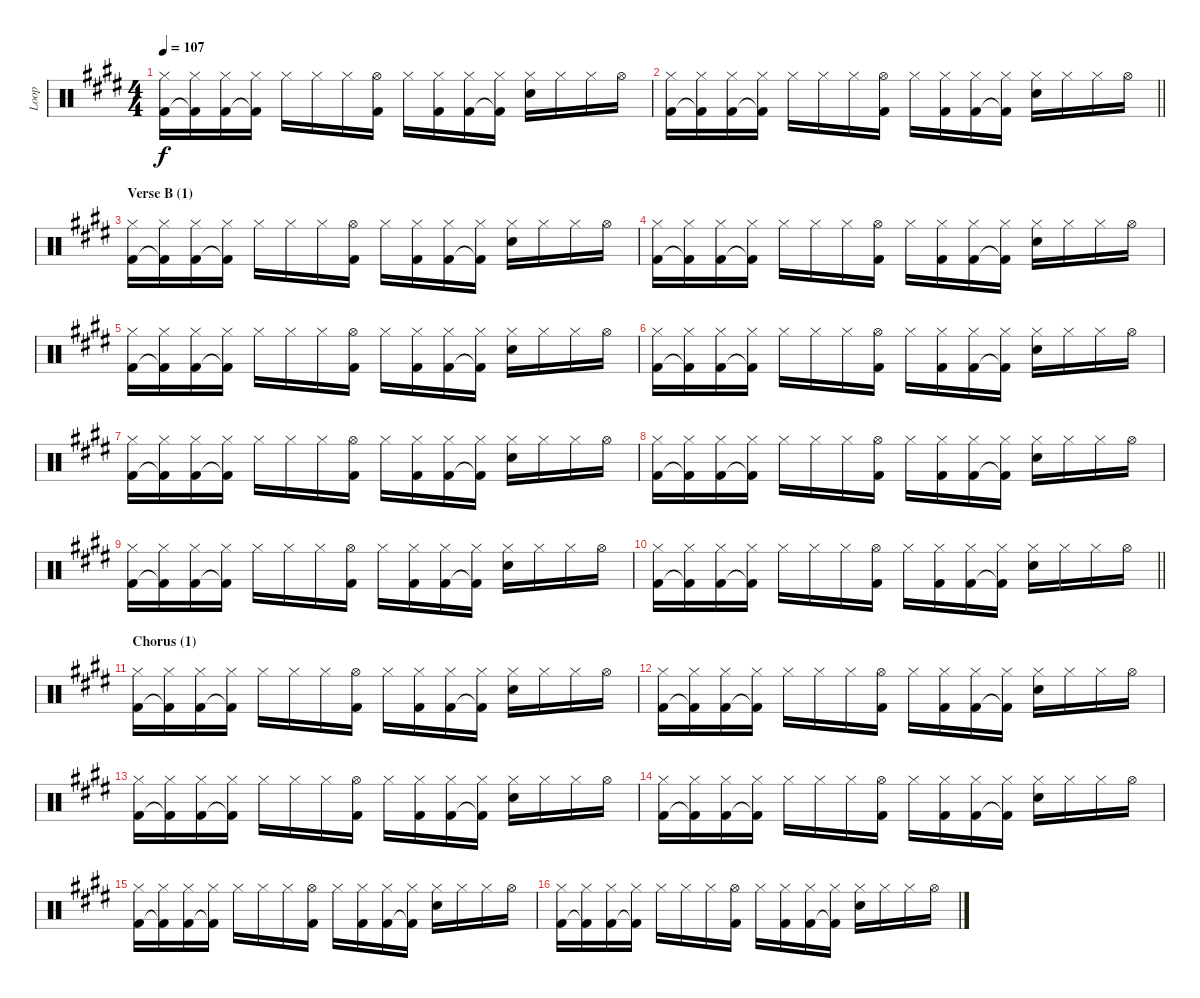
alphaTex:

\track ("Loop" "Loop") {instrument percussion}
\staff {score}
\articulation defaults
\ts (4 4)
\tempo 107
\clef neutral
\ks e
("Hi-Hat (closed)" "Kick (hit) 2").16{dy f} ("Hi-Hat (closed)" "Kick (hit) 2"{t}).16 ("Hi-Hat (closed)" "Kick (hit) 2").16 ("Hi-Hat (closed)" "Kick (hit) 2"{t}).16 "Hi-Hat (closed)".16 "Hi-Hat (closed)".16 "Hi-Hat (closed)".16 ("Hi-Hat (open)" "Kick (hit) 2").16 "Hi-Hat (closed)".16 ("Hi-Hat (closed)" "Kick (hit) 2").16 ("Hi-Hat (closed)" "Kick (hit) 2").16 ("Hi-Hat (closed)" "Kick (hit) 2"{t}).16 ("Hi-Hat (closed)" "Electric Snare (hit)").16 "Hi-Hat (closed)".16 "Hi-Hat (closed)".16 "Hi-Hat (open)".16 |
\barLineRight lightlight
("Hi-Hat (closed)" "Kick (hit) 2").16 ("Hi-Hat (closed)" "Kick (hit) 2"{t}).16 ("Hi-Hat (closed)" "Kick (hit) 2").16 ("Hi-Hat (closed)" "Kick (hit) 2"{t}).16 "Hi-Hat (closed)".16 "Hi-Hat (closed)".16 "Hi-Hat (closed)".16 ("Hi-Hat (open)" "Kick (hit) 2").16 "Hi-Hat (closed)".16 ("Hi-Hat (closed)" "Kick (hit) 2").16 ("Hi-Hat (closed)" "Kick (hit) 2").16 ("Hi-Hat (closed)" "Kick (hit) 2"{t}).16 ("Hi-Hat (closed)" "Electric Snare (hit)").16 "Hi-Hat (closed)".16 "Hi-Hat (closed)".16 "Hi-Hat (open)".16 |
\section ("" "Verse B (1)")
("Hi-Hat (closed)" "Kick (hit) 2").16 ("Hi-Hat (closed)" "Kick (hit) 2"{t}).16 ("Hi-Hat (closed)" "Kick (hit) 2").16 ("Hi-Hat (closed)" "Kick (hit) 2"{t}).16 "Hi-Hat (closed)".16 "Hi-Hat (closed)".16 "Hi-Hat (closed)".16 ("Hi-Hat (open)" "Kick (hit) 2").16 "Hi-Hat (closed)".16 ("Hi-Hat (closed)" "Kick (hit) 2").16 ("Hi-Hat (closed)" "Kick (hit) 2").16 ("Hi-Hat (closed)" "Kick (hit) 2"{t}).16 ("Hi-Hat (closed)" "Electric Snare (hit)").16 "Hi-Hat (closed)".16 "Hi-Hat (closed)".16 "Hi-Hat (open)".16 |
("Hi-Hat (closed)" "Kick (hit) 2").16 ("Hi-Hat (closed)" "Kick (hit) 2"{t}).16 ("Hi-Hat (closed)" "Kick (hit) 2").16 ("Hi-Hat (closed)" "Kick (hit) 2"{t}).16 "Hi-Hat (closed)".16 "Hi-Hat (closed)".16 "Hi-Hat (closed)".16 ("Hi-Hat (open)" "Kick (hit) 2").16 "Hi-Hat (closed)".16 ("Hi-Hat (closed)" "Kick (hit) 2").16 ("Hi-Hat (closed)" "Kick (hit) 2").16 ("Hi-Hat (closed)" "Kick (hit) 2"{t}).16 ("Hi-Hat (closed)" "Electric Snare (hit)").16 "Hi-Hat (closed)".16 "Hi-Hat (closed)".16 "Hi-Hat (open)".16 |
("Hi-Hat (closed)" "Kick (hit) 2").16 ("Hi-Hat (closed)" "Kick (hit) 2"{t}).16 ("Hi-Hat (closed)" "Kick (hit) 2").16 ("Hi-Hat (closed)" "Kick (hit) 2"{t}).16 "Hi-Hat (closed)".16 "Hi-Hat (closed)".16 "Hi-Hat (closed)".16 ("Hi-Hat (open)" "Kick (hit) 2").16 "Hi-Hat (closed)".16 ("Hi-Hat (closed)" "Kick (hit) 2").16 ("Hi-Hat (closed)" "Kick (hit) 2").16 ("Hi-Hat (closed)" "Kick (hit) 2"{t}).16 ("Hi-Hat (closed)" "Electric Snare (hit)").16 "Hi-Hat (closed)".16 "Hi-Hat (closed)".16 "Hi-Hat (open)".16 |
("Hi-Hat (closed)" "Kick (hit) 2").16 ("Hi-Hat (closed)" "Kick (hit) 2"{t}).16 ("Hi-Hat (closed)" "Kick (hit) 2").16 ("Hi-Hat (closed)" "Kick (hit) 2"{t}).16 "Hi-Hat (closed)".16 "Hi-Hat (closed)".16 "Hi-Hat (closed)".16 ("Hi-Hat (open)" "Kick (hit) 2").16 "Hi-Hat (closed)".16 ("Hi-Hat (closed)" "Kick (hit) 2").16 ("Hi-Hat (closed)" "Kick (hit) 2").16 ("Hi-Hat (closed)" "Kick (hit) 2"{t}).16 ("Hi-Hat (closed)" "Electric Snare (hit)").16 "Hi-Hat (closed)".16 "Hi-Hat (closed)".16 "Hi-Hat (open)".16 |
("Hi-Hat (closed)" "Kick (hit) 2").16 ("Hi-Hat (closed)" "Kick (hit) 2"{t}).16 ("Hi-Hat (closed)" "Kick (hit) 2").16 ("Hi-Hat (closed)" "Kick (hit) 2"{t}).16 "Hi-Hat (closed)".16 "Hi-Hat (closed)".16 "Hi-Hat (closed)".16 ("Hi-Hat (open)" "Kick (hit) 2").16 "Hi-Hat (closed)".16 ("Hi-Hat (closed)" "Kick (hit) 2").16 ("Hi-Hat (closed)" "Kick (hit) 2").16 ("Hi-Hat (closed)" "Kick (hit) 2"{t}).16 ("Hi-Hat (closed)" "Electric Snare (hit)").16 "Hi-Hat (closed)".16 "Hi-Hat (closed)".16 "Hi-Hat (open)".16 |
("Hi-Hat (closed)" "Kick (hit) 2").16 ("Hi-Hat (closed)" "Kick (hit) 2"{t}).16 ("Hi-Hat (closed)" "Kick (hit) 2").16 ("Hi-Hat (closed)" "Kick (hit) 2"{t}).16 "Hi-Hat (closed)".16 "Hi-Hat (closed)".16 "Hi-Hat (closed)".16 ("Hi-Hat (open)" "Kick (hit) 2").16 "Hi-Hat (closed)".16 ("Hi-Hat (closed)" "Kick (hit) 2").16 ("Hi-Hat (closed)" "Kick (hit) 2").16 ("Hi-Hat (closed)" "Kick (hit) 2"{t}).16 ("Hi-Hat (closed)" "Electric Snare (hit)").16 "Hi-Hat (closed)".16 "Hi-Hat (closed)".16 "Hi-Hat (open)".16 |
("Hi-Hat (closed)" "Kick (hit) 2").16 ("Hi-Hat (closed)" "Kick (hit) 2"{t}).16 ("Hi-Hat (closed)" "Kick (hit) 2").16 ("Hi-Hat (closed)" "Kick (hit) 2"{t}).16 "Hi-Hat (closed)".16 "Hi-Hat (closed)".16 "Hi-Hat (closed)".16 ("Hi-Hat (open)" "Kick (hit) 2").16 "Hi-Hat (closed)".16 ("Hi-Hat (closed)" "Kick (hit) 2").16 ("Hi-Hat (closed)" "Kick (hit) 2").16 ("Hi-Hat (closed)" "Kick (hit) 2"{t}).16 ("Hi-Hat (closed)" "Electric Snare (hit)").16 "Hi-Hat (closed)".16 "Hi-Hat (closed)".16 "Hi-Hat (open)".16 |
\barLineRight lightlight
("Hi-Hat (closed)" "Kick (hit) 2").16 ("Hi-Hat (closed)" "Kick (hit) 2"{t}).16 ("Hi-Hat (closed)" "Kick (hit) 2").16 ("Hi-Hat (closed)" "Kick (hit) 2"{t}).16 "Hi-Hat (closed)".16 "Hi-Hat (closed)".16 "Hi-Hat (closed)".16 ("Hi-Hat (open)" "Kick (hit) 2").16 "Hi-Hat (closed)".16 ("Hi-Hat (closed)" "Kick (hit) 2").16 ("Hi-Hat (closed)" "Kick (hit) 2").16 ("Hi-Hat (closed)" "Kick (hit) 2"{t}).16 ("Hi-Hat (closed)" "Electric Snare (hit)").16 "Hi-Hat (closed)".16 "Hi-Hat (closed)".16 "Hi-Hat (open)".16 |
\section ("" "Chorus (1)")
("Hi-Hat (closed)" "Kick (hit) 2").16 ("Hi-Hat (closed)" "Kick (hit) 2"{t}).16 ("Hi-Hat (closed)" "Kick (hit) 2").16 ("Hi-Hat (closed)" "Kick (hit) 2"{t}).16 "Hi-Hat (closed)".16 "Hi-Hat (closed)".16 "Hi-Hat (closed)".16 ("Hi-Hat (open)" "Kick (hit) 2").16 "Hi-Hat (closed)".16 ("Hi-Hat (closed)" "Kick (hit) 2").16 ("Hi-Hat (closed)" "Kick (hit) 2").16 ("Hi-Hat (closed)" "Kick (hit) 2"{t}).16 ("Hi-Hat (closed)" "Electric Snare (hit)").16 "Hi-Hat (closed)".16 "Hi-Hat (closed)".16 "Hi-Hat (open)".16 |
("Hi-Hat (closed)" "Kick (hit) 2").16 ("Hi-Hat (closed)" "Kick (hit) 2"{t}).16 ("Hi-Hat (closed)" "Kick (hit) 2").16 ("Hi-Hat (closed)" "Kick (hit) 2"{t}).16 "Hi-Hat (closed)".16 "Hi-Hat (closed)".16 "Hi-Hat (closed)".16 ("Hi-Hat (open)" "Kick (hit) 2").16 "Hi-Hat (closed)".16 ("Hi-Hat (closed)" "Kick (hit) 2").16 ("Hi-Hat (closed)" "Kick (hit) 2").16 ("Hi-Hat (closed)" "Kick (hit) 2"{t}).16 ("Hi-Hat (closed)" "Electric Snare (hit)").16 "Hi-Hat (closed)".16 "Hi-Hat (closed)".16 "Hi-Hat (open)".16 |
("Hi-Hat (closed)" "Kick (hit) 2").16 ("Hi-Hat (closed)" "Kick (hit) 2"{t}).16 ("Hi-Hat (closed)" "Kick (hit) 2").16 ("Hi-Hat (closed)" "Kick (hit) 2"{t}).16 "Hi-Hat (closed)".16 "Hi-Hat (closed)".16 "Hi-Hat (closed)".16 ("Hi-Hat (open)" "Kick (hit) 2").16 "Hi-Hat (closed)".16 ("Hi-Hat (closed)" "Kick (hit) 2").16 ("Hi-Hat (closed)" "Kick (hit) 2").16 ("Hi-Hat (closed)" "Kick (hit) 2"{t}).16 ("Hi-Hat (closed)" "Electric Snare (hit)").16 "Hi-Hat (closed)".16 "Hi-Hat (closed)".16 "Hi-Hat (open)".16 |
("Hi-Hat (closed)" "Kick (hit) 2").16 ("Hi-Hat (closed)" "Kick (hit) 2"{t}).16 ("Hi-Hat (closed)" "Kick (hit) 2").16 ("Hi-Hat (closed)" "Kick (hit) 2"{t}).16 "Hi-Hat (closed)".16 "Hi-Hat (closed)".16 "Hi-Hat (closed)".16 ("Hi-Hat (open)" "Kick (hit) 2").16 "Hi-Hat (closed)".16 ("Hi-Hat (closed)" "Kick (hit) 2").16 ("Hi-Hat (closed)" "Kick (hit) 2").16 ("Hi-Hat (closed)" "Kick (hit) 2"{t}).16 ("Hi-Hat (closed)" "Electric Snare (hit)").16 "Hi-Hat (closed)".16 "Hi-Hat (closed)".16 "Hi-Hat (open)".16 |
("Hi-Hat (closed)" "Kick (hit) 2").16 ("Hi-Hat (closed)" "Kick (hit) 2"{t}).16 ("Hi-Hat (closed)" "Kick (hit) 2").16 ("Hi-Hat (closed)" "Kick (hit) 2"{t}).16 "Hi-Hat (closed)".16 "Hi-Hat (closed)".16 "Hi-Hat (closed)".16 ("Hi-Hat (open)" "Kick (hit) 2").16 "Hi-Hat (closed)".16 ("Hi-Hat (closed)" "Kick (hit) 2").16 ("Hi-Hat (closed)" "Kick (hit) 2").16 ("Hi-Hat (closed)" "Kick (hit) 2"{t}).16 ("Hi-Hat (closed)" "Electric Snare (hit)").16 "Hi-Hat (closed)".16 "Hi-Hat (closed)".16 "Hi-Hat (open)".16 |
("Hi-Hat (closed)" "Kick (hit) 2").16 ("Hi-Hat (closed)" "Kick (hit) 2"{t}).16 ("Hi-Hat (closed)" "Kick (hit) 2").16 ("Hi-Hat (closed)" "Kick (hit) 2"{t}).16 "Hi-Hat (closed)".16 "Hi-Hat (closed)".16 "Hi-Hat (closed)".16 ("Hi-Hat (open)" "Kick (hit) 2").16 "Hi-Hat (closed)".16 ("Hi-Hat (closed)" "Kick (hit) 2").16 ("Hi-Hat (closed)" "Kick (hit) 2").16 ("Hi-Hat (closed)" "Kick (hit) 2"{t}).16 ("Hi-Hat (closed)" "Electric Snare (hit)").16 "Hi-Hat (closed)".16 "Hi-Hat (closed)".16 "Hi-Hat (open)".16
